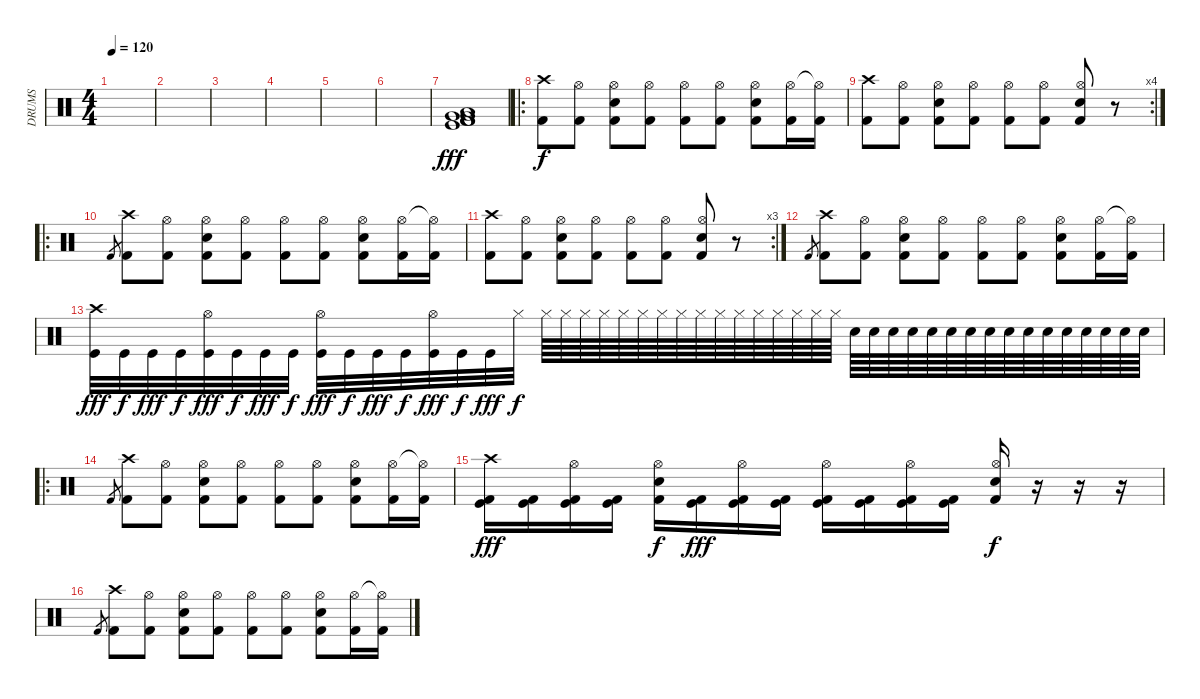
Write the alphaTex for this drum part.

\track ("DRUMS" "DRUMS") {instrument percussion}
\staff {score}
\articulation defaults
\ts (4 4)
\tempo 120
\clef neutral
\ks c
|
|
|
|
|
|
("Kick (hit) 2" "Low Tom (hit)" "Kick (hit)" "Very Low Tom (hit)" "Kick (hit) 2" "Very Low Tom (hit)").1{dy fff} |
\ro
("Crash high (hit)" "Kick (hit) 2").8{dy f} ("Hi-Hat (open)" "Kick (hit) 2").8 ("Hi-Hat (open)" "Snare (hit) 2" "Kick (hit) 2").8 ("Hi-Hat (open)" "Kick (hit) 2").8 ("Hi-Hat (open)" "Kick (hit) 2").8 ("Hi-Hat (open)" "Kick (hit) 2").8 ("Hi-Hat (open)" "Snare (hit) 2" "Kick (hit) 2").8 ("Hi-Hat (open)" "Kick (hit) 2").16 ("Hi-Hat (open)"{t} "Kick (hit) 2").16 |
\rc 4
("Crash high (hit)" "Kick (hit) 2").8 ("Hi-Hat (open)" "Kick (hit) 2").8 ("Hi-Hat (open)" "Snare (hit) 2" "Kick (hit) 2").8 ("Hi-Hat (open)" "Kick (hit) 2").8 ("Hi-Hat (open)" "Kick (hit) 2").8 ("Hi-Hat (open)" "Kick (hit) 2").8 ("Hi-Hat (open)" "Snare (hit) 2" "Kick (hit) 2").8 r.8 |
\ro "Kick (hit) 2".8{gr}
("Crash high (hit)" "Kick (hit) 2").8 ("Hi-Hat (open)" "Kick (hit) 2").8 ("Hi-Hat (open)" "Snare (hit) 2" "Kick (hit) 2").8 ("Hi-Hat (open)" "Kick (hit) 2").8 ("Hi-Hat (open)" "Kick (hit) 2").8 ("Hi-Hat (open)" "Kick (hit) 2").8 ("Hi-Hat (open)" "Snare (hit) 2" "Kick (hit) 2").8 ("Hi-Hat (open)" "Kick (hit) 2").16 ("Hi-Hat (open)"{t} "Kick (hit) 2").16 |
\rc 3
("Crash high (hit)" "Kick (hit) 2").8 ("Hi-Hat (open)" "Kick (hit) 2").8 ("Hi-Hat (open)" "Snare (hit) 2" "Kick (hit) 2").8 ("Hi-Hat (open)" "Kick (hit) 2").8 ("Hi-Hat (open)" "Kick (hit) 2").8 ("Hi-Hat (open)" "Kick (hit) 2").8 ("Hi-Hat (open)" "Snare (hit) 2" "Kick (hit) 2").8 r.8 |
"Kick (hit) 2".8{gr} ("Crash high (hit)" "Kick (hit) 2").8 ("Hi-Hat (open)" "Kick (hit) 2").8 ("Hi-Hat (open)" "Snare (hit) 2" "Kick (hit) 2").8 ("Hi-Hat (open)" "Kick (hit) 2").8 ("Hi-Hat (open)" "Kick (hit) 2").8 ("Hi-Hat (open)" "Kick (hit) 2").8 ("Hi-Hat (open)" "Snare (hit) 2" "Kick (hit) 2").8 ("Hi-Hat (open)" "Kick (hit) 2").16 ("Hi-Hat (open)"{t} "Kick (hit) 2").16 |
("Crash high (hit)" "Kick (hit)").32{dy fff} "Kick (hit)".32{dy f} "Kick (hit)".32{dy fff} "Kick (hit)".32{dy f} ("Hi-Hat (open)" "Kick (hit)").32{dy fff} "Kick (hit)".32{dy f} "Kick (hit)".32{dy fff} "Kick (hit)".32{dy f} ("Hi-Hat (open)" "Kick (hit)").32{dy fff} "Kick (hit)".32{dy f} "Kick (hit)".32{dy fff} "Kick (hit)".32{dy f} ("Hi-Hat (open)" "Kick (hit)").32{dy fff} "Kick (hit)".32{dy f} "Kick (hit)".32{dy fff} "Hi-Hat (closed)".32{dy f} "Hi-Hat (closed)".64 "Hi-Hat (closed)".64 "Hi-Hat (closed)".64 "Hi-Hat (closed)".64 "Hi-Hat (closed)".64 "Hi-Hat (closed)".64 "Hi-Hat (closed)".64 "Hi-Hat (closed)".64 "Hi-Hat (closed)".64 "Hi-Hat (closed)".64 "Hi-Hat (closed)".64 "Hi-Hat (closed)".64 "Hi-Hat (closed)".64 "Hi-Hat (closed)".64 "Hi-Hat (closed)".64 "Hi-Hat (closed)".64 "Electric Snare (hit)".64 "Electric Snare (hit)".64 "Electric Snare (hit)".64 "Electric Snare (hit)".64 "Electric Snare (hit)".64 "Electric Snare (hit)".64 "Electric Snare (hit)".64 "Electric Snare (hit)".64 "Electric Snare (hit)".64 "Electric Snare (hit)".64 "Electric Snare (hit)".64 "Electric Snare (hit)".64 "Electric Snare (hit)".64 "Electric Snare (hit)".64 "Electric Snare (hit)".64 "Electric Snare (hit)".64 |
\ro "Kick (hit) 2".8{gr}
("Crash high (hit)" "Kick (hit) 2").8 ("Hi-Hat (open)" "Kick (hit) 2").8 ("Hi-Hat (open)" "Snare (hit) 2" "Kick (hit) 2").8 ("Hi-Hat (open)" "Kick (hit) 2").8 ("Hi-Hat (open)" "Kick (hit) 2").8 ("Hi-Hat (open)" "Kick (hit) 2").8 ("Hi-Hat (open)" "Snare (hit) 2" "Kick (hit) 2").8 ("Hi-Hat (open)" "Kick (hit) 2").16 ("Hi-Hat (open)"{t} "Kick (hit) 2").16 |
("Crash high (hit)" "Kick (hit)" "Kick (hit) 2").16{dy fff} ("Kick (hit)" "Kick (hit) 2").16 ("Hi-Hat (open)" "Kick (hit)" "Kick (hit) 2").16 ("Kick (hit)" "Kick (hit) 2").16 ("Hi-Hat (open)" "Snare (hit) 2" "Kick (hit) 2").16{dy f} ("Kick (hit)" "Kick (hit) 2").16{dy fff} ("Hi-Hat (open)" "Kick (hit)" "Kick (hit) 2").16 ("Kick (hit)" "Kick (hit) 2").16 ("Hi-Hat (open)" "Kick (hit)" "Kick (hit) 2").16 ("Kick (hit)" "Kick (hit) 2").16 ("Hi-Hat (open)" "Kick (hit)" "Kick (hit) 2").16 ("Kick (hit)" "Kick (hit) 2").16 ("Hi-Hat (open)" "Snare (hit) 2" "Kick (hit) 2").16{dy f} r.16 r.16 r.16 |
"Kick (hit) 2".8{gr} ("Crash high (hit)" "Kick (hit) 2").8 ("Hi-Hat (open)" "Kick (hit) 2").8 ("Hi-Hat (open)" "Snare (hit) 2" "Kick (hit) 2").8 ("Hi-Hat (open)" "Kick (hit) 2").8 ("Hi-Hat (open)" "Kick (hit) 2").8 ("Hi-Hat (open)" "Kick (hit) 2").8 ("Hi-Hat (open)" "Snare (hit) 2" "Kick (hit) 2").8 ("Hi-Hat (open)" "Kick (hit) 2").16 ("Hi-Hat (open)"{t} "Kick (hit) 2").16
